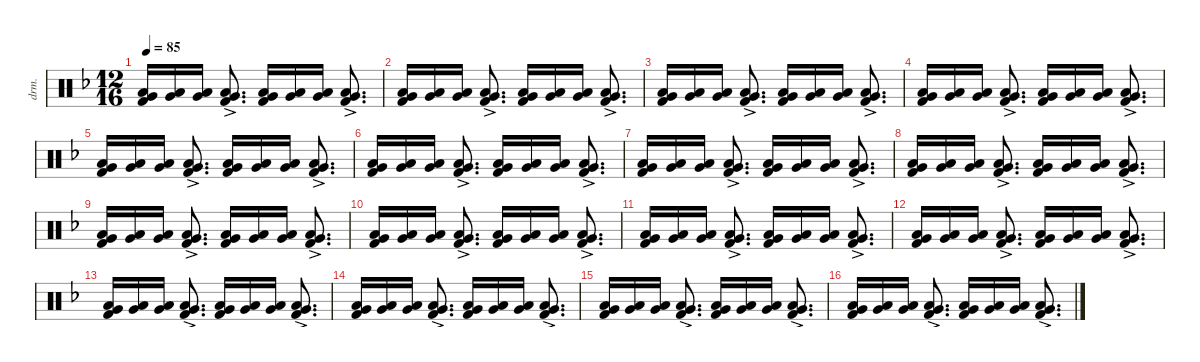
\defaultSystemsLayout 4
\hideDynamics
\bracketExtendMode nobrackets
\otherSystemsTrackNameOrientation horizontal
\track ("Drums" "drm.") {instrument percussion}
\staff {score}
\articulation defaults
\ts (12 16)
\tempo 85
\clef neutral
\ks dminor
("Low Tom (hit)"{acc forcenatural} "Very Low Tom (hit)"{acc forcenatural} "Kick (hit) 2"{acc forcenatural}).16{dy f beam Up} ("Low Tom (hit)"{acc forcenatural} "Very Low Tom (hit)"{acc forcenatural}).16{beam Up} ("Low Tom (hit)"{acc forcenatural} "Very Low Tom (hit)"{acc forcenatural}).16{beam Up} ("Low Tom (hit)"{ac acc forcenatural} "Very Low Tom (hit)"{ac acc forcenatural} "Kick (hit) 2"{acc forcenatural}).8{d beam Up} ("Low Tom (hit)"{acc forcenatural} "Very Low Tom (hit)"{acc forcenatural} "Kick (hit) 2"{acc forcenatural}).16{beam Up} ("Low Tom (hit)"{acc forcenatural} "Very Low Tom (hit)"{acc forcenatural}).16{beam Up} ("Low Tom (hit)"{acc forcenatural} "Very Low Tom (hit)"{acc forcenatural}).16{beam Up} ("Low Tom (hit)"{ac acc forcenatural} "Very Low Tom (hit)"{ac acc forcenatural} "Kick (hit) 2"{acc forcenatural}).8{d beam Up} |
("Low Tom (hit)"{acc forcenatural} "Very Low Tom (hit)"{acc forcenatural} "Kick (hit) 2"{acc forcenatural}).16{beam Up} ("Low Tom (hit)"{acc forcenatural} "Very Low Tom (hit)"{acc forcenatural}).16{beam Up} ("Low Tom (hit)"{acc forcenatural} "Very Low Tom (hit)"{acc forcenatural}).16{beam Up} ("Low Tom (hit)"{ac acc forcenatural} "Very Low Tom (hit)"{ac acc forcenatural} "Kick (hit) 2"{acc forcenatural}).8{d beam Up} ("Low Tom (hit)"{acc forcenatural} "Very Low Tom (hit)"{acc forcenatural} "Kick (hit) 2"{acc forcenatural}).16{beam Up} ("Low Tom (hit)"{acc forcenatural} "Very Low Tom (hit)"{acc forcenatural}).16{beam Up} ("Low Tom (hit)"{acc forcenatural} "Very Low Tom (hit)"{acc forcenatural}).16{beam Up} ("Low Tom (hit)"{ac acc forcenatural} "Very Low Tom (hit)"{ac acc forcenatural} "Kick (hit) 2"{acc forcenatural}).8{d beam Up} |
("Low Tom (hit)"{acc forcenatural} "Very Low Tom (hit)"{acc forcenatural} "Kick (hit) 2"{acc forcenatural}).16{beam Up} ("Low Tom (hit)"{acc forcenatural} "Very Low Tom (hit)"{acc forcenatural}).16{beam Up} ("Low Tom (hit)"{acc forcenatural} "Very Low Tom (hit)"{acc forcenatural}).16{beam Up} ("Low Tom (hit)"{ac acc forcenatural} "Very Low Tom (hit)"{ac acc forcenatural} "Kick (hit) 2"{acc forcenatural}).8{d beam Up} ("Low Tom (hit)"{acc forcenatural} "Very Low Tom (hit)"{acc forcenatural} "Kick (hit) 2"{acc forcenatural}).16{beam Up} ("Low Tom (hit)"{acc forcenatural} "Very Low Tom (hit)"{acc forcenatural}).16{beam Up} ("Low Tom (hit)"{acc forcenatural} "Very Low Tom (hit)"{acc forcenatural}).16{beam Up} ("Low Tom (hit)"{ac acc forcenatural} "Very Low Tom (hit)"{ac acc forcenatural} "Kick (hit) 2"{acc forcenatural}).8{d beam Up} |
("Low Tom (hit)"{acc forcenatural} "Very Low Tom (hit)"{acc forcenatural} "Kick (hit) 2"{acc forcenatural}).16{beam Up} ("Low Tom (hit)"{acc forcenatural} "Very Low Tom (hit)"{acc forcenatural}).16{beam Up} ("Low Tom (hit)"{acc forcenatural} "Very Low Tom (hit)"{acc forcenatural}).16{beam Up} ("Low Tom (hit)"{ac acc forcenatural} "Very Low Tom (hit)"{ac acc forcenatural} "Kick (hit) 2"{acc forcenatural}).8{d beam Up} ("Low Tom (hit)"{acc forcenatural} "Very Low Tom (hit)"{acc forcenatural} "Kick (hit) 2"{acc forcenatural}).16{beam Up} ("Low Tom (hit)"{acc forcenatural} "Very Low Tom (hit)"{acc forcenatural}).16{beam Up} ("Low Tom (hit)"{acc forcenatural} "Very Low Tom (hit)"{acc forcenatural}).16{beam Up} ("Low Tom (hit)"{ac acc forcenatural} "Very Low Tom (hit)"{ac acc forcenatural} "Kick (hit) 2"{acc forcenatural}).8{d beam Up} |
("Low Tom (hit)"{acc forcenatural} "Very Low Tom (hit)"{acc forcenatural} "Kick (hit) 2"{acc forcenatural}).16{beam Up} ("Low Tom (hit)"{acc forcenatural} "Very Low Tom (hit)"{acc forcenatural}).16{beam Up} ("Low Tom (hit)"{acc forcenatural} "Very Low Tom (hit)"{acc forcenatural}).16{beam Up} ("Low Tom (hit)"{ac acc forcenatural} "Very Low Tom (hit)"{ac acc forcenatural} "Kick (hit) 2"{acc forcenatural}).8{d beam Up} ("Low Tom (hit)"{acc forcenatural} "Very Low Tom (hit)"{acc forcenatural} "Kick (hit) 2"{acc forcenatural}).16{beam Up} ("Low Tom (hit)"{acc forcenatural} "Very Low Tom (hit)"{acc forcenatural}).16{beam Up} ("Low Tom (hit)"{acc forcenatural} "Very Low Tom (hit)"{acc forcenatural}).16{beam Up} ("Low Tom (hit)"{ac acc forcenatural} "Very Low Tom (hit)"{ac acc forcenatural} "Kick (hit) 2"{acc forcenatural}).8{d beam Up} |
("Low Tom (hit)"{acc forcenatural} "Very Low Tom (hit)"{acc forcenatural} "Kick (hit) 2"{acc forcenatural}).16{beam Up} ("Low Tom (hit)"{acc forcenatural} "Very Low Tom (hit)"{acc forcenatural}).16{beam Up} ("Low Tom (hit)"{acc forcenatural} "Very Low Tom (hit)"{acc forcenatural}).16{beam Up} ("Low Tom (hit)"{ac acc forcenatural} "Very Low Tom (hit)"{ac acc forcenatural} "Kick (hit) 2"{acc forcenatural}).8{d beam Up} ("Low Tom (hit)"{acc forcenatural} "Very Low Tom (hit)"{acc forcenatural} "Kick (hit) 2"{acc forcenatural}).16{beam Up} ("Low Tom (hit)"{acc forcenatural} "Very Low Tom (hit)"{acc forcenatural}).16{beam Up} ("Low Tom (hit)"{acc forcenatural} "Very Low Tom (hit)"{acc forcenatural}).16{beam Up} ("Low Tom (hit)"{ac acc forcenatural} "Very Low Tom (hit)"{ac acc forcenatural} "Kick (hit) 2"{acc forcenatural}).8{d beam Up} |
("Low Tom (hit)"{acc forcenatural} "Very Low Tom (hit)"{acc forcenatural} "Kick (hit) 2"{acc forcenatural}).16{beam Up} ("Low Tom (hit)"{acc forcenatural} "Very Low Tom (hit)"{acc forcenatural}).16{beam Up} ("Low Tom (hit)"{acc forcenatural} "Very Low Tom (hit)"{acc forcenatural}).16{beam Up} ("Low Tom (hit)"{ac acc forcenatural} "Very Low Tom (hit)"{ac acc forcenatural} "Kick (hit) 2"{acc forcenatural}).8{d beam Up} ("Low Tom (hit)"{acc forcenatural} "Very Low Tom (hit)"{acc forcenatural} "Kick (hit) 2"{acc forcenatural}).16{beam Up} ("Low Tom (hit)"{acc forcenatural} "Very Low Tom (hit)"{acc forcenatural}).16{beam Up} ("Low Tom (hit)"{acc forcenatural} "Very Low Tom (hit)"{acc forcenatural}).16{beam Up} ("Low Tom (hit)"{ac acc forcenatural} "Very Low Tom (hit)"{ac acc forcenatural} "Kick (hit) 2"{acc forcenatural}).8{d beam Up} |
("Low Tom (hit)"{acc forcenatural} "Very Low Tom (hit)"{acc forcenatural} "Kick (hit) 2"{acc forcenatural}).16{beam Up} ("Low Tom (hit)"{acc forcenatural} "Very Low Tom (hit)"{acc forcenatural}).16{beam Up} ("Low Tom (hit)"{acc forcenatural} "Very Low Tom (hit)"{acc forcenatural}).16{beam Up} ("Low Tom (hit)"{ac acc forcenatural} "Very Low Tom (hit)"{ac acc forcenatural} "Kick (hit) 2"{acc forcenatural}).8{d beam Up} ("Low Tom (hit)"{acc forcenatural} "Very Low Tom (hit)"{acc forcenatural} "Kick (hit) 2"{acc forcenatural}).16{beam Up} ("Low Tom (hit)"{acc forcenatural} "Very Low Tom (hit)"{acc forcenatural}).16{beam Up} ("Low Tom (hit)"{acc forcenatural} "Very Low Tom (hit)"{acc forcenatural}).16{beam Up} ("Low Tom (hit)"{ac acc forcenatural} "Very Low Tom (hit)"{ac acc forcenatural} "Kick (hit) 2"{acc forcenatural}).8{d beam Up} |
("Low Tom (hit)"{acc forcenatural} "Very Low Tom (hit)"{acc forcenatural} "Kick (hit) 2"{acc forcenatural}).16{beam Up} ("Low Tom (hit)"{acc forcenatural} "Very Low Tom (hit)"{acc forcenatural}).16{beam Up} ("Low Tom (hit)"{acc forcenatural} "Very Low Tom (hit)"{acc forcenatural}).16{beam Up} ("Low Tom (hit)"{ac acc forcenatural} "Very Low Tom (hit)"{ac acc forcenatural} "Kick (hit) 2"{acc forcenatural}).8{d beam Up} ("Low Tom (hit)"{acc forcenatural} "Very Low Tom (hit)"{acc forcenatural} "Kick (hit) 2"{acc forcenatural}).16{beam Up} ("Low Tom (hit)"{acc forcenatural} "Very Low Tom (hit)"{acc forcenatural}).16{beam Up} ("Low Tom (hit)"{acc forcenatural} "Very Low Tom (hit)"{acc forcenatural}).16{beam Up} ("Low Tom (hit)"{ac acc forcenatural} "Very Low Tom (hit)"{ac acc forcenatural} "Kick (hit) 2"{acc forcenatural}).8{d beam Up} |
("Low Tom (hit)"{acc forcenatural} "Very Low Tom (hit)"{acc forcenatural} "Kick (hit) 2"{acc forcenatural}).16{beam Up} ("Low Tom (hit)"{acc forcenatural} "Very Low Tom (hit)"{acc forcenatural}).16{beam Up} ("Low Tom (hit)"{acc forcenatural} "Very Low Tom (hit)"{acc forcenatural}).16{beam Up} ("Low Tom (hit)"{ac acc forcenatural} "Very Low Tom (hit)"{ac acc forcenatural} "Kick (hit) 2"{acc forcenatural}).8{d beam Up} ("Low Tom (hit)"{acc forcenatural} "Very Low Tom (hit)"{acc forcenatural} "Kick (hit) 2"{acc forcenatural}).16{beam Up} ("Low Tom (hit)"{acc forcenatural} "Very Low Tom (hit)"{acc forcenatural}).16{beam Up} ("Low Tom (hit)"{acc forcenatural} "Very Low Tom (hit)"{acc forcenatural}).16{beam Up} ("Low Tom (hit)"{ac acc forcenatural} "Very Low Tom (hit)"{ac acc forcenatural} "Kick (hit) 2"{acc forcenatural}).8{d beam Up} |
("Low Tom (hit)"{acc forcenatural} "Very Low Tom (hit)"{acc forcenatural} "Kick (hit) 2"{acc forcenatural}).16{beam Up} ("Low Tom (hit)"{acc forcenatural} "Very Low Tom (hit)"{acc forcenatural}).16{beam Up} ("Low Tom (hit)"{acc forcenatural} "Very Low Tom (hit)"{acc forcenatural}).16{beam Up} ("Low Tom (hit)"{ac acc forcenatural} "Very Low Tom (hit)"{ac acc forcenatural} "Kick (hit) 2"{acc forcenatural}).8{d beam Up} ("Low Tom (hit)"{acc forcenatural} "Very Low Tom (hit)"{acc forcenatural} "Kick (hit) 2"{acc forcenatural}).16{beam Up} ("Low Tom (hit)"{acc forcenatural} "Very Low Tom (hit)"{acc forcenatural}).16{beam Up} ("Low Tom (hit)"{acc forcenatural} "Very Low Tom (hit)"{acc forcenatural}).16{beam Up} ("Low Tom (hit)"{ac acc forcenatural} "Very Low Tom (hit)"{ac acc forcenatural} "Kick (hit) 2"{acc forcenatural}).8{d beam Up} |
("Low Tom (hit)"{acc forcenatural} "Very Low Tom (hit)"{acc forcenatural} "Kick (hit) 2"{acc forcenatural}).16{beam Up} ("Low Tom (hit)"{acc forcenatural} "Very Low Tom (hit)"{acc forcenatural}).16{beam Up} ("Low Tom (hit)"{acc forcenatural} "Very Low Tom (hit)"{acc forcenatural}).16{beam Up} ("Low Tom (hit)"{ac acc forcenatural} "Very Low Tom (hit)"{ac acc forcenatural} "Kick (hit) 2"{acc forcenatural}).8{d beam Up} ("Low Tom (hit)"{acc forcenatural} "Very Low Tom (hit)"{acc forcenatural} "Kick (hit) 2"{acc forcenatural}).16{beam Up} ("Low Tom (hit)"{acc forcenatural} "Very Low Tom (hit)"{acc forcenatural}).16{beam Up} ("Low Tom (hit)"{acc forcenatural} "Very Low Tom (hit)"{acc forcenatural}).16{beam Up} ("Low Tom (hit)"{ac acc forcenatural} "Very Low Tom (hit)"{ac acc forcenatural} "Kick (hit) 2"{acc forcenatural}).8{d beam Up} |
("Low Tom (hit)"{acc forcenatural} "Very Low Tom (hit)"{acc forcenatural} "Kick (hit) 2"{acc forcenatural}).16{beam Up} ("Low Tom (hit)"{acc forcenatural} "Very Low Tom (hit)"{acc forcenatural}).16{beam Up} ("Low Tom (hit)"{acc forcenatural} "Very Low Tom (hit)"{acc forcenatural}).16{beam Up} ("Low Tom (hit)"{ac acc forcenatural} "Very Low Tom (hit)"{ac acc forcenatural} "Kick (hit) 2"{acc forcenatural}).8{d beam Up} ("Low Tom (hit)"{acc forcenatural} "Very Low Tom (hit)"{acc forcenatural} "Kick (hit) 2"{acc forcenatural}).16{beam Up} ("Low Tom (hit)"{acc forcenatural} "Very Low Tom (hit)"{acc forcenatural}).16{beam Up} ("Low Tom (hit)"{acc forcenatural} "Very Low Tom (hit)"{acc forcenatural}).16{beam Up} ("Low Tom (hit)"{ac acc forcenatural} "Very Low Tom (hit)"{ac acc forcenatural} "Kick (hit) 2"{acc forcenatural}).8{d beam Up} |
("Low Tom (hit)"{acc forcenatural} "Very Low Tom (hit)"{acc forcenatural} "Kick (hit) 2"{acc forcenatural}).16{beam Up} ("Low Tom (hit)"{acc forcenatural} "Very Low Tom (hit)"{acc forcenatural}).16{beam Up} ("Low Tom (hit)"{acc forcenatural} "Very Low Tom (hit)"{acc forcenatural}).16{beam Up} ("Low Tom (hit)"{ac acc forcenatural} "Very Low Tom (hit)"{ac acc forcenatural} "Kick (hit) 2"{acc forcenatural}).8{d beam Up} ("Low Tom (hit)"{acc forcenatural} "Very Low Tom (hit)"{acc forcenatural} "Kick (hit) 2"{acc forcenatural}).16{beam Up} ("Low Tom (hit)"{acc forcenatural} "Very Low Tom (hit)"{acc forcenatural}).16{beam Up} ("Low Tom (hit)"{acc forcenatural} "Very Low Tom (hit)"{acc forcenatural}).16{beam Up} ("Low Tom (hit)"{ac acc forcenatural} "Very Low Tom (hit)"{ac acc forcenatural} "Kick (hit) 2"{acc forcenatural}).8{d beam Up} |
("Low Tom (hit)"{acc forcenatural} "Very Low Tom (hit)"{acc forcenatural} "Kick (hit) 2"{acc forcenatural}).16{beam Up} ("Low Tom (hit)"{acc forcenatural} "Very Low Tom (hit)"{acc forcenatural}).16{beam Up} ("Low Tom (hit)"{acc forcenatural} "Very Low Tom (hit)"{acc forcenatural}).16{beam Up} ("Low Tom (hit)"{ac acc forcenatural} "Very Low Tom (hit)"{ac acc forcenatural} "Kick (hit) 2"{acc forcenatural}).8{d beam Up} ("Low Tom (hit)"{acc forcenatural} "Very Low Tom (hit)"{acc forcenatural} "Kick (hit) 2"{acc forcenatural}).16{beam Up} ("Low Tom (hit)"{acc forcenatural} "Very Low Tom (hit)"{acc forcenatural}).16{beam Up} ("Low Tom (hit)"{acc forcenatural} "Very Low Tom (hit)"{acc forcenatural}).16{beam Up} ("Low Tom (hit)"{ac acc forcenatural} "Very Low Tom (hit)"{ac acc forcenatural} "Kick (hit) 2"{acc forcenatural}).8{d beam Up} |
("Low Tom (hit)"{acc forcenatural} "Very Low Tom (hit)"{acc forcenatural} "Kick (hit) 2"{acc forcenatural}).16{beam Up} ("Low Tom (hit)"{acc forcenatural} "Very Low Tom (hit)"{acc forcenatural}).16{beam Up} ("Low Tom (hit)"{acc forcenatural} "Very Low Tom (hit)"{acc forcenatural}).16{beam Up} ("Low Tom (hit)"{ac acc forcenatural} "Very Low Tom (hit)"{ac acc forcenatural} "Kick (hit) 2"{acc forcenatural}).8{d beam Up} ("Low Tom (hit)"{acc forcenatural} "Very Low Tom (hit)"{acc forcenatural} "Kick (hit) 2"{acc forcenatural}).16{beam Up} ("Low Tom (hit)"{acc forcenatural} "Very Low Tom (hit)"{acc forcenatural}).16{beam Up} ("Low Tom (hit)"{acc forcenatural} "Very Low Tom (hit)"{acc forcenatural}).16{beam Up} ("Low Tom (hit)"{ac acc forcenatural} "Very Low Tom (hit)"{ac acc forcenatural} "Kick (hit) 2"{acc forcenatural}).8{d beam Up}
